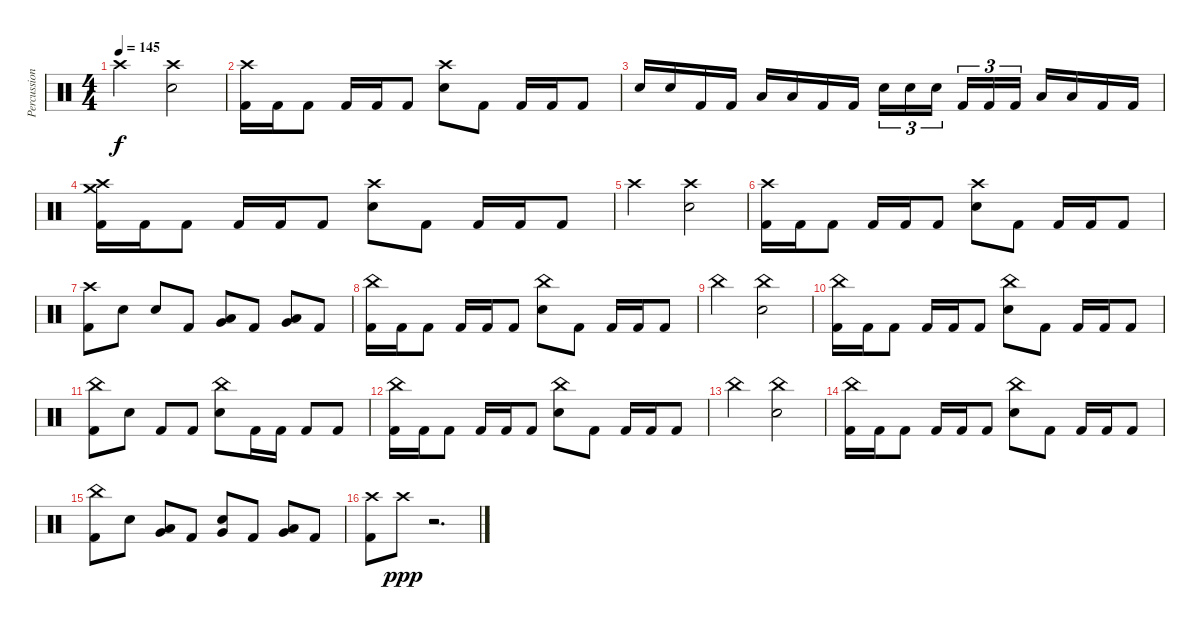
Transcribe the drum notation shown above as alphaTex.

\track ("Percussion" "Percussion") {instrument percussion}
\staff {score}
\articulation defaults
\ts (4 4)
\tempo 145
\clef neutral
\ks c "Crash high (hit)".2{dy f}
("Crash high (hit)" "Electric Snare (hit)").2 |
("Crash high (hit)" "Kick (hit) 2").16 "Kick (hit) 2".16 "Kick (hit) 2".8 "Kick (hit) 2".16 "Kick (hit) 2".16 "Kick (hit) 2".8 ("Crash high (hit)" "Electric Snare (hit)").8 "Kick (hit) 2".8 "Kick (hit) 2".16 "Kick (hit) 2".16 "Kick (hit) 2".8 |
"Electric Snare (hit)".16 "Electric Snare (hit)".16 "Kick (hit) 2".16 "Kick (hit) 2".16 "Low Tom (hit)".16 "Low Tom (hit)".16 "Kick (hit) 2".16 "Kick (hit) 2".16 "Electric Snare (hit)".16{tu (3 2)} "Electric Snare (hit)".16{tu (3 2)} "Electric Snare (hit)".16{tu (3 2) beam splitsecondary} "Kick (hit) 2".16{tu (3 2)} "Kick (hit) 2".16{tu (3 2)} "Kick (hit) 2".16{tu (3 2)} "Low Tom (hit)".16 "Low Tom (hit)".16 "Kick (hit) 2".16 "Kick (hit) 2".16 |
("Crash medium (hit)" "Crash high (hit)" "Kick (hit) 2").16 "Kick (hit) 2".16 "Kick (hit) 2".8 "Kick (hit) 2".16 "Kick (hit) 2".16 "Kick (hit) 2".8 ("Crash high (hit)" "Electric Snare (hit)").8 "Kick (hit) 2".8 "Kick (hit) 2".16 "Kick (hit) 2".16 "Kick (hit) 2".8 |
"Crash high (hit)".2 ("Crash high (hit)" "Electric Snare (hit)").2 |
("Crash high (hit)" "Kick (hit) 2").16 "Kick (hit) 2".16 "Kick (hit) 2".8 "Kick (hit) 2".16 "Kick (hit) 2".16 "Kick (hit) 2".8 ("Crash high (hit)" "Electric Snare (hit)").8 "Kick (hit) 2".8 "Kick (hit) 2".16 "Kick (hit) 2".16 "Kick (hit) 2".8 |
("Crash high (hit)" "Kick (hit) 2").8 "Electric Snare (hit)".8 "Electric Snare (hit)".8 "Kick (hit) 2".8 ("Low Tom (hit)" "Very Low Tom (hit)").8 "Kick (hit) 2".8 ("Very Low Tom (hit)" "Low Floor Tom (hit)").8 "Kick (hit) 2".8 |
("China (hit)" "Kick (hit) 2").16 "Kick (hit) 2".16 "Kick (hit) 2".8 "Kick (hit) 2".16 "Kick (hit) 2".16 "Kick (hit) 2".8 ("China (hit)" "Electric Snare (hit)").8 "Kick (hit) 2".8 "Kick (hit) 2".16 "Kick (hit) 2".16 "Kick (hit) 2".8 |
"China (hit)".2 ("China (hit)" "Electric Snare (hit)").2 |
("China (hit)" "Kick (hit) 2").16 "Kick (hit) 2".16 "Kick (hit) 2".8 "Kick (hit) 2".16 "Kick (hit) 2".16 "Kick (hit) 2".8 ("China (hit)" "Electric Snare (hit)").8 "Kick (hit) 2".8 "Kick (hit) 2".16 "Kick (hit) 2".16 "Kick (hit) 2".8 |
("China (hit)" "Kick (hit) 2").8 "Electric Snare (hit)".8 "Kick (hit) 2".8 "Kick (hit) 2".8 ("China (hit)" "Electric Snare (hit)").8 "Kick (hit) 2".16 "Kick (hit) 2".16 "Kick (hit) 2".8 "Kick (hit) 2".8 |
("China (hit)" "Kick (hit) 2").16 "Kick (hit) 2".16 "Kick (hit) 2".8 "Kick (hit) 2".16 "Kick (hit) 2".16 "Kick (hit) 2".8 ("China (hit)" "Electric Snare (hit)").8 "Kick (hit) 2".8 "Kick (hit) 2".16 "Kick (hit) 2".16 "Kick (hit) 2".8 |
"China (hit)".2 ("China (hit)" "Electric Snare (hit)").2 |
("China (hit)" "Kick (hit) 2").16 "Kick (hit) 2".16 "Kick (hit) 2".8 "Kick (hit) 2".16 "Kick (hit) 2".16 "Kick (hit) 2".8 ("China (hit)" "Electric Snare (hit)").8 "Kick (hit) 2".8 "Kick (hit) 2".16 "Kick (hit) 2".16 "Kick (hit) 2".8 |
("China (hit)" "Kick (hit) 2").8 "Electric Snare (hit)".8 ("Very Low Tom (hit)" "Low Floor Tom (hit)").8 "Kick (hit) 2".8 ("Electric Snare (hit)" "Very Low Tom (hit)").8 "Kick (hit) 2".8 ("Very Low Tom (hit)" "Low Floor Tom (hit)").8 "Kick (hit) 2".8 |
("Crash high (hit)" "Kick (hit) 2").8 "Crash high (hit)".8{dy ppp} r.2{d}
